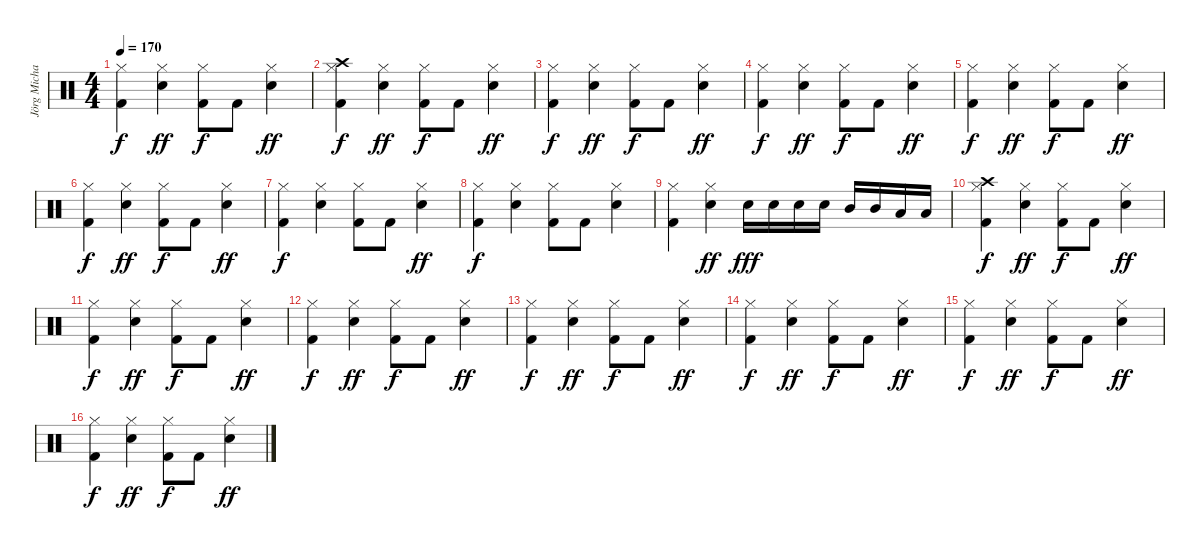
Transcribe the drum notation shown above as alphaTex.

\track ("Jörg Michael" "Jörg Micha") {instrument percussion}
\staff {score}
\articulation defaults
\ts (4 4)
\tempo 170
\clef neutral
\ks c
("Kick (hit) 2" "Hi-Hat (closed)").4{dy f} ("Electric Snare (hit)" "Hi-Hat (closed)").4{dy ff} ("Kick (hit) 2" "Hi-Hat (closed)").8{dy f} "Kick (hit) 2".8 ("Electric Snare (hit)" "Hi-Hat (closed)").4{dy ff} |
("Kick (hit) 2" "Hi-Hat (closed)" "Crash high (hit)").4{dy f} ("Electric Snare (hit)" "Hi-Hat (closed)").4{dy ff} ("Kick (hit) 2" "Hi-Hat (closed)").8{dy f} "Kick (hit) 2".8 ("Electric Snare (hit)" "Hi-Hat (closed)").4{dy ff} |
("Kick (hit) 2" "Hi-Hat (closed)").4{dy f} ("Electric Snare (hit)" "Hi-Hat (closed)").4{dy ff} ("Kick (hit) 2" "Hi-Hat (closed)").8{dy f} "Kick (hit) 2".8 ("Electric Snare (hit)" "Hi-Hat (closed)").4{dy ff} |
("Kick (hit) 2" "Hi-Hat (closed)").4{dy f} ("Electric Snare (hit)" "Hi-Hat (closed)").4{dy ff} ("Kick (hit) 2" "Hi-Hat (closed)").8{dy f} "Kick (hit) 2".8 ("Electric Snare (hit)" "Hi-Hat (closed)").4{dy ff} |
("Kick (hit) 2" "Hi-Hat (closed)").4{dy f} ("Electric Snare (hit)" "Hi-Hat (closed)").4{dy ff} ("Kick (hit) 2" "Hi-Hat (closed)").8{dy f} "Kick (hit) 2".8 ("Electric Snare (hit)" "Hi-Hat (closed)").4{dy ff} |
("Kick (hit) 2" "Hi-Hat (closed)").4{dy f} ("Electric Snare (hit)" "Hi-Hat (closed)").4{dy ff} ("Kick (hit) 2" "Hi-Hat (closed)").8{dy f} "Kick (hit) 2".8 ("Electric Snare (hit)" "Hi-Hat (closed)").4{dy ff} |
("Kick (hit) 2" "Hi-Hat (closed)").4{dy f} ("Electric Snare (hit)" "Hi-Hat (closed)").4 ("Kick (hit) 2" "Hi-Hat (closed)").8 "Kick (hit) 2".8 ("Electric Snare (hit)" "Hi-Hat (closed)").4{dy ff} |
("Kick (hit) 2" "Hi-Hat (closed)").4{dy f} ("Electric Snare (hit)" "Hi-Hat (closed)").4 ("Kick (hit) 2" "Hi-Hat (closed)").8 "Kick (hit) 2".8 ("Electric Snare (hit)" "Hi-Hat (closed)").4 |
("Kick (hit) 2" "Hi-Hat (closed)").4 ("Electric Snare (hit)" "Hi-Hat (closed)").4{dy ff} "Electric Snare (hit)".16{dy fff} "Electric Snare (hit)".16 "Electric Snare (hit)".16 "Electric Snare (hit)".16 "Mid Tom (hit)".16 "Mid Tom (hit)".16 "Low Tom (hit)".16 "Low Tom (hit)".16 |
("Kick (hit) 2" "Hi-Hat (closed)" "Crash high (hit)").4{dy f} ("Electric Snare (hit)" "Hi-Hat (closed)").4{dy ff} ("Kick (hit) 2" "Hi-Hat (closed)").8{dy f} "Kick (hit) 2".8 ("Electric Snare (hit)" "Hi-Hat (closed)").4{dy ff} |
("Kick (hit) 2" "Hi-Hat (closed)").4{dy f} ("Electric Snare (hit)" "Hi-Hat (closed)").4{dy ff} ("Kick (hit) 2" "Hi-Hat (closed)").8{dy f} "Kick (hit) 2".8 ("Electric Snare (hit)" "Hi-Hat (closed)").4{dy ff} |
("Kick (hit) 2" "Hi-Hat (closed)").4{dy f} ("Electric Snare (hit)" "Hi-Hat (closed)").4{dy ff} ("Kick (hit) 2" "Hi-Hat (closed)").8{dy f} "Kick (hit) 2".8 ("Electric Snare (hit)" "Hi-Hat (closed)").4{dy ff} |
("Kick (hit) 2" "Hi-Hat (closed)").4{dy f} ("Electric Snare (hit)" "Hi-Hat (closed)").4{dy ff} ("Kick (hit) 2" "Hi-Hat (closed)").8{dy f} "Kick (hit) 2".8 ("Electric Snare (hit)" "Hi-Hat (closed)").4{dy ff} |
("Kick (hit) 2" "Hi-Hat (closed)").4{dy f} ("Electric Snare (hit)" "Hi-Hat (closed)").4{dy ff} ("Kick (hit) 2" "Hi-Hat (closed)").8{dy f} "Kick (hit) 2".8 ("Electric Snare (hit)" "Hi-Hat (closed)").4{dy ff} |
("Kick (hit) 2" "Hi-Hat (closed)").4{dy f} ("Electric Snare (hit)" "Hi-Hat (closed)").4{dy ff} ("Kick (hit) 2" "Hi-Hat (closed)").8{dy f} "Kick (hit) 2".8 ("Electric Snare (hit)" "Hi-Hat (closed)").4{dy ff} |
("Kick (hit) 2" "Hi-Hat (closed)").4{dy f} ("Electric Snare (hit)" "Hi-Hat (closed)").4{dy ff} ("Kick (hit) 2" "Hi-Hat (closed)").8{dy f} "Kick (hit) 2".8 ("Electric Snare (hit)" "Hi-Hat (closed)").4{dy ff}
